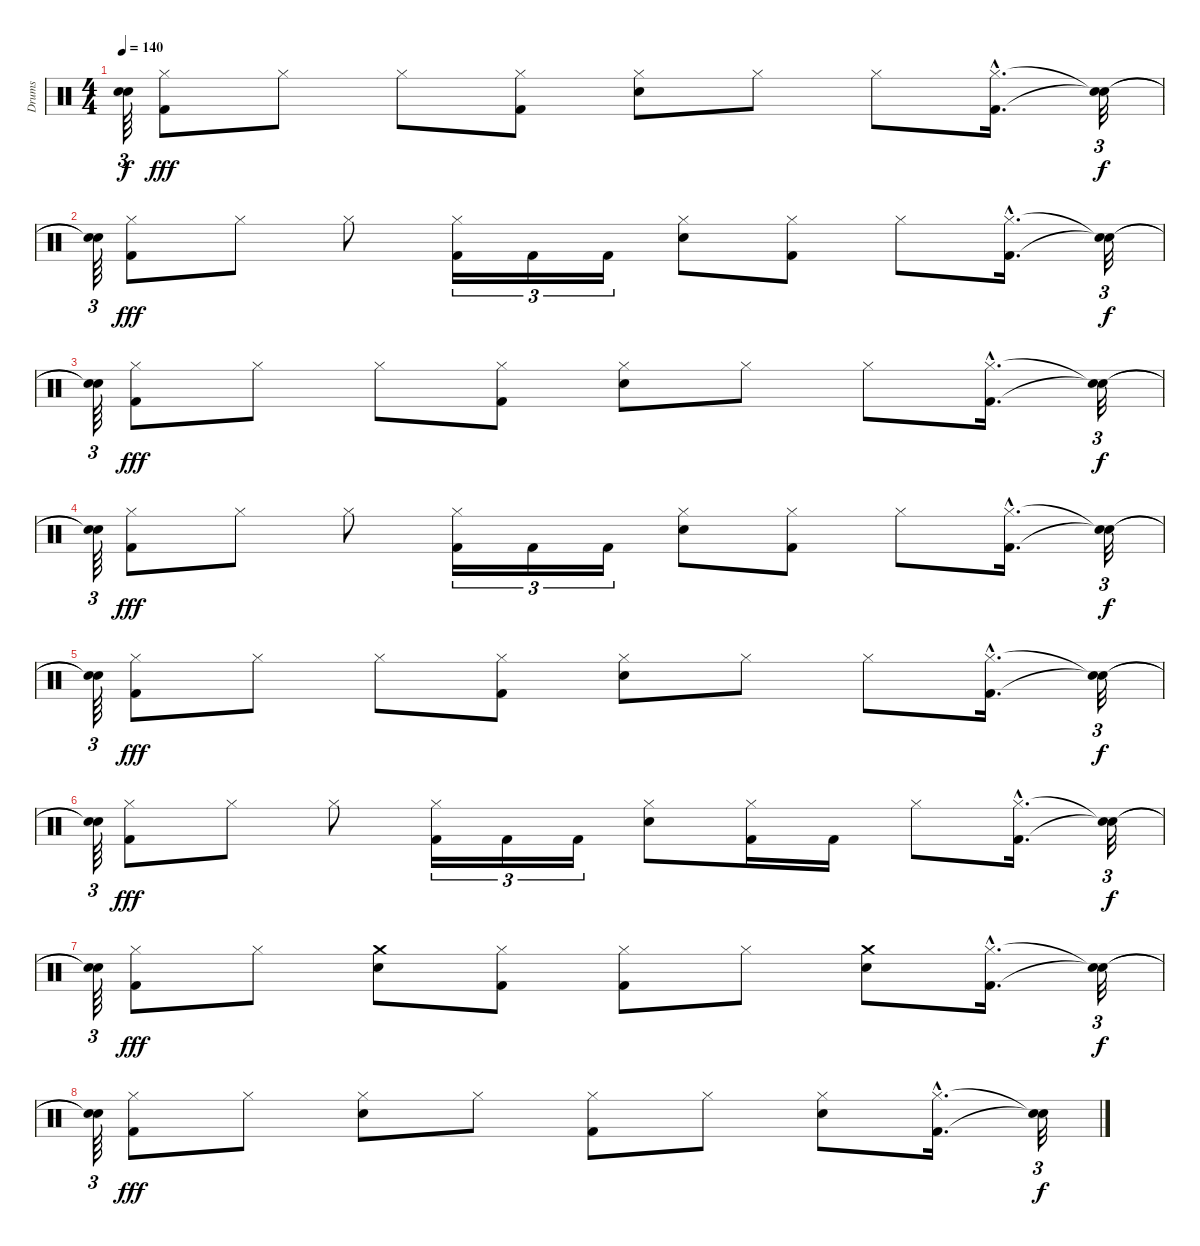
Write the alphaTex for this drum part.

\track ("Drums" "Drums") {instrument percussion}
\staff {score}
\articulation defaults
\ts (4 4)
\tempo 140
\clef neutral
\ks c
("Snare (hit)"{t} "Snare (hit)"{t}).64{tu (3 2) dy f} ("Hi-Hat (closed)" "Kick (hit) 2").8{dy fff} "Hi-Hat (closed)".8 "Hi-Hat (closed)".8 ("Kick (hit) 2" "Hi-Hat (closed)").8 ("Hi-Hat (closed)" "Snare (hit) 2").8 "Hi-Hat (closed)".8 "Hi-Hat (closed)".8 ("Kick (hit) 2"{hac} "Hi-Hat (closed)"{hac}).16{d} ("Snare (hit)"{t} "Snare (hit)"{t}).32{tu (3 2) dy f} |
("Snare (hit)"{t} "Snare (hit)"{t}).64{tu (3 2)} ("Hi-Hat (closed)" "Kick (hit) 2").8{dy fff} "Hi-Hat (closed)".8 "Hi-Hat (closed)".8 ("Hi-Hat (closed)" "Kick (hit) 2").16{tu (3 2)} "Kick (hit) 2".16{tu (3 2)} "Kick (hit) 2".16{tu (3 2)} ("Snare (hit) 2" "Hi-Hat (closed)").8 ("Hi-Hat (closed)" "Kick (hit) 2").8 "Hi-Hat (closed)".8 ("Hi-Hat (closed)"{hac} "Kick (hit) 2"{hac}).16{d} ("Snare (hit)"{t} "Snare (hit)"{t}).32{tu (3 2) dy f} |
("Snare (hit)"{t} "Snare (hit)"{t}).64{tu (3 2)} ("Hi-Hat (closed)" "Kick (hit) 2").8{dy fff} "Hi-Hat (closed)".8 "Hi-Hat (closed)".8 ("Kick (hit) 2" "Hi-Hat (closed)").8 ("Hi-Hat (closed)" "Snare (hit) 2").8 "Hi-Hat (closed)".8 "Hi-Hat (closed)".8 ("Kick (hit) 2"{hac} "Hi-Hat (closed)"{hac}).16{d} ("Snare (hit)"{t} "Snare (hit)"{t}).32{tu (3 2) dy f} |
("Snare (hit)"{t} "Snare (hit)"{t}).64{tu (3 2)} ("Hi-Hat (closed)" "Kick (hit) 2").8{dy fff} "Hi-Hat (closed)".8 "Hi-Hat (closed)".8 ("Hi-Hat (closed)" "Kick (hit) 2").16{tu (3 2)} "Kick (hit) 2".16{tu (3 2)} "Kick (hit) 2".16{tu (3 2)} ("Snare (hit) 2" "Hi-Hat (closed)").8 ("Hi-Hat (closed)" "Kick (hit) 2").8 "Hi-Hat (closed)".8 ("Hi-Hat (closed)"{hac} "Kick (hit) 2"{hac}).16{d} ("Snare (hit)"{t} "Snare (hit)"{t}).32{tu (3 2) dy f} |
("Snare (hit)"{t} "Snare (hit)"{t}).64{tu (3 2)} ("Hi-Hat (closed)" "Kick (hit) 2").8{dy fff} "Hi-Hat (closed)".8 "Hi-Hat (closed)".8 ("Kick (hit) 2" "Hi-Hat (closed)").8 ("Hi-Hat (closed)" "Snare (hit) 2").8 "Hi-Hat (closed)".8 "Hi-Hat (closed)".8 ("Kick (hit) 2"{hac} "Hi-Hat (closed)"{hac}).16{d} ("Snare (hit)"{t} "Snare (hit)"{t}).32{tu (3 2) dy f} |
("Snare (hit)"{t} "Snare (hit)"{t}).64{tu (3 2)} ("Hi-Hat (closed)" "Kick (hit) 2").8{dy fff} "Hi-Hat (closed)".8 "Hi-Hat (closed)".8 ("Hi-Hat (closed)" "Kick (hit) 2").16{tu (3 2)} "Kick (hit) 2".16{tu (3 2)} "Kick (hit) 2".16{tu (3 2)} ("Snare (hit) 2" "Hi-Hat (closed)").8 ("Hi-Hat (closed)" "Kick (hit) 2").16 "Kick (hit) 2".16 "Hi-Hat (closed)".8 ("Hi-Hat (closed)"{hac} "Kick (hit) 2"{hac}).16{d} ("Snare (hit)"{t} "Snare (hit)"{t}).32{tu (3 2) dy f} |
("Snare (hit)"{t} "Snare (hit)"{t}).64{tu (3 2)} ("Kick (hit) 2" "Hi-Hat (closed)").8{dy fff} "Hi-Hat (closed)".8 ("Snare (hit) 2" "Crash medium (hit)").8 ("Kick (hit) 2" "Hi-Hat (closed)").8 ("Kick (hit) 2" "Hi-Hat (closed)").8 "Hi-Hat (closed)".8 ("Crash medium (hit)" "Snare (hit) 2").8 ("Kick (hit) 2"{hac} "Hi-Hat (closed)"{hac}).16{d} ("Snare (hit)"{t} "Snare (hit)"{t}).32{tu (3 2) dy f} |
("Snare (hit)"{t} "Snare (hit)"{t}).64{tu (3 2)} ("Hi-Hat (closed)" "Kick (hit) 2").8{dy fff} "Hi-Hat (closed)".8 ("Snare (hit) 2" "Hi-Hat (closed)").8 "Hi-Hat (closed)".8 ("Hi-Hat (closed)" "Kick (hit) 2").8 "Hi-Hat (closed)".8 ("Snare (hit) 2" "Hi-Hat (closed)").8 ("Hi-Hat (closed)"{hac} "Kick (hit) 2"{hac}).16{d} ("Snare (hit)"{t} "Snare (hit)"{t}).32{tu (3 2) dy f}
